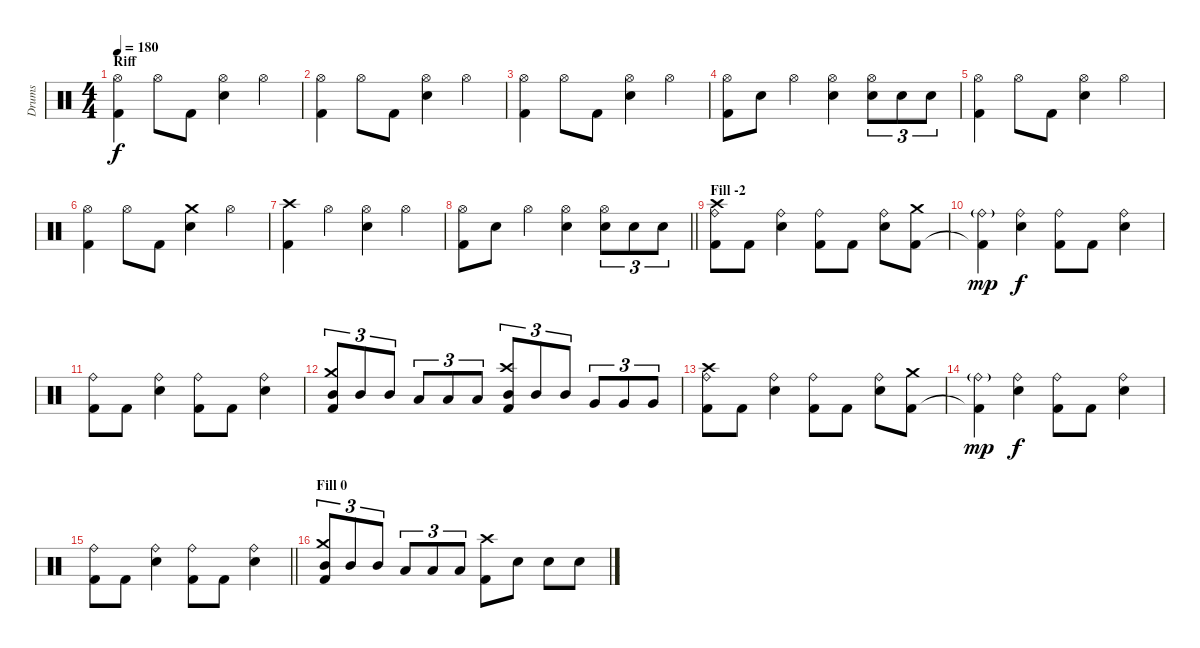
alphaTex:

\track ("Drums" "Drums") {instrument percussion}
\staff {score}
\articulation defaults
\ts (4 4)
\section ("" "Riff")
\tempo 180
\clef neutral
\ks c
("Hi-Hat (open)" "Kick (hit) 2").4{dy f} "Hi-Hat (open)".8 "Kick (hit) 2".8 ("Hi-Hat (open)" "Snare (hit) 2").4 "Hi-Hat (open)".4 |
("Hi-Hat (open)" "Kick (hit) 2").4 "Hi-Hat (open)".8 "Kick (hit) 2".8 ("Hi-Hat (open)" "Snare (hit) 2").4 "Hi-Hat (open)".4 |
("Hi-Hat (open)" "Kick (hit) 2").4 "Hi-Hat (open)".8 "Kick (hit) 2".8 ("Hi-Hat (open)" "Snare (hit) 2").4 "Hi-Hat (open)".4 |
("Hi-Hat (open)" "Kick (hit) 2").8 "Snare (hit) 2".8 "Hi-Hat (open)".4 ("Hi-Hat (open)" "Snare (hit) 2").4 ("Hi-Hat (open)" "Snare (hit) 2").8{tu (3 2)} "Snare (hit) 2".8{tu (3 2)} "Snare (hit) 2".8{tu (3 2)} |
("Hi-Hat (open)" "Kick (hit) 2").4 "Hi-Hat (open)".8 "Kick (hit) 2".8 ("Hi-Hat (open)" "Snare (hit) 2").4 "Hi-Hat (open)".4 |
("Hi-Hat (open)" "Kick (hit) 2").4 "Hi-Hat (open)".8 "Kick (hit) 2".8 ("Crash medium (hit)" "Snare (hit) 2").4 "Hi-Hat (open)".4 |
("Crash high (hit)" "Kick (hit) 2").4 "Hi-Hat (open)".4 ("Hi-Hat (open)" "Snare (hit) 2").4 "Hi-Hat (open)".4 |
\barLineRight lightlight
("Hi-Hat (open)" "Kick (hit) 2").8 "Snare (hit) 2".8 "Hi-Hat (open)".4 ("Hi-Hat (open)" "Snare (hit) 2").4 ("Hi-Hat (open)" "Snare (hit) 2").8{tu (3 2)} "Snare (hit) 2".8{tu (3 2)} "Snare (hit) 2".8{tu (3 2)} |
\section ("" "Fill -2")
("Ride (bell)" "Crash high (hit)" "Kick (hit) 2").8 "Kick (hit) 2".8 ("Ride (bell)" "Snare (hit) 2").4 ("Ride (bell)" "Kick (hit) 2").8 "Kick (hit) 2".8 ("Ride (bell)" "Snare (hit) 2").8 ("Crash medium (hit)" "Kick (hit) 2").8 |
("Ride (bell)"{g} "Kick (hit) 2"{t}).4{dy mp} ("Ride (bell)" "Snare (hit) 2").4{dy f} ("Ride (bell)" "Kick (hit) 2").8 "Kick (hit) 2".8 ("Ride (bell)" "Snare (hit) 2").4 |
("Ride (bell)" "Kick (hit) 2").8 "Kick (hit) 2".8 ("Ride (bell)" "Snare (hit) 2").4 ("Ride (bell)" "Kick (hit) 2").8 "Kick (hit) 2".8 ("Ride (bell)" "Snare (hit) 2").4 |
("Crash medium (hit)" "Mid Tom (hit)" "Kick (hit) 2").8{tu (3 2)} "Mid Tom (hit)".8{tu (3 2)} "Mid Tom (hit)".8{tu (3 2)} "Low Tom (hit)".8{tu (3 2)} "Low Tom (hit)".8{tu (3 2)} "Low Tom (hit)".8{tu (3 2)} ("Crash high (hit)" "Mid Tom (hit)" "Kick (hit) 2").8{tu (3 2)} "Mid Tom (hit)".8{tu (3 2)} "Mid Tom (hit)".8{tu (3 2)} "Very Low Tom (hit)".8{tu (3 2)} "Very Low Tom (hit)".8{tu (3 2)} "Very Low Tom (hit)".8{tu (3 2)} |
("Ride (bell)" "Crash high (hit)" "Kick (hit) 2").8 "Kick (hit) 2".8 ("Ride (bell)" "Snare (hit) 2").4 ("Ride (bell)" "Kick (hit) 2").8 "Kick (hit) 2".8 ("Ride (bell)" "Snare (hit) 2").8 ("Crash medium (hit)" "Kick (hit) 2").8 |
("Ride (bell)"{g} "Kick (hit) 2"{t}).4{dy mp} ("Ride (bell)" "Snare (hit) 2").4{dy f} ("Ride (bell)" "Kick (hit) 2").8 "Kick (hit) 2".8 ("Ride (bell)" "Snare (hit) 2").4 |
\barLineRight lightlight
("Ride (bell)" "Kick (hit) 2").8 "Kick (hit) 2".8 ("Ride (bell)" "Snare (hit) 2").4 ("Ride (bell)" "Kick (hit) 2").8 "Kick (hit) 2".8 ("Ride (bell)" "Snare (hit) 2").4 |
\section ("" "Fill 0")
("Crash medium (hit)" "Mid Tom (hit)" "Kick (hit) 2").8{tu (3 2)} "Mid Tom (hit)".8{tu (3 2)} "Mid Tom (hit)".8{tu (3 2)} "Low Tom (hit)".8{tu (3 2)} "Low Tom (hit)".8{tu (3 2)} "Low Tom (hit)".8{tu (3 2)} ("Crash high (hit)" "Kick (hit) 2").8 "Snare (hit) 2".8 "Snare (hit) 2".8 "Snare (hit) 2".8
